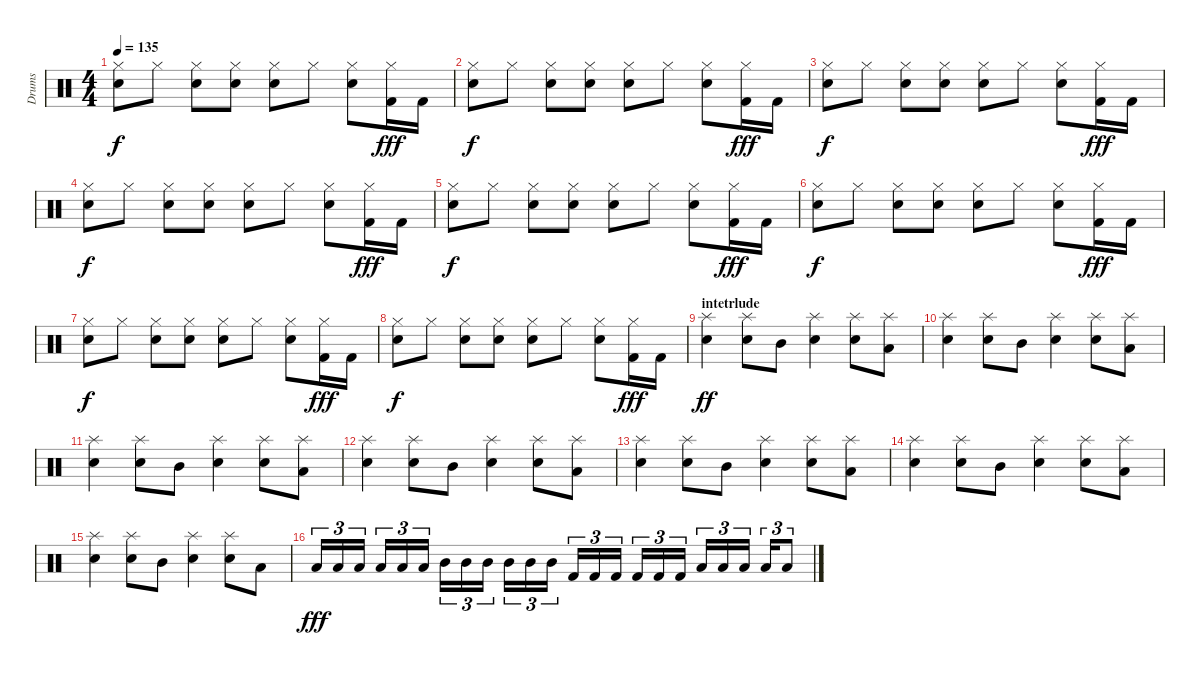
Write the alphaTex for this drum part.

\track ("Drums" "Drums") {instrument percussion}
\staff {score}
\articulation defaults
\ts (4 4)
\tempo 135
\clef neutral
\ks c
("Hi-Hat (closed)" "Electric Snare (hit)").8{dy f} "Hi-Hat (closed)".8 ("Hi-Hat (closed)" "Electric Snare (hit)").8 ("Hi-Hat (closed)" "Snare (hit) 2").8 ("Hi-Hat (closed)" "Electric Snare (hit)").8 "Hi-Hat (closed)".8 ("Hi-Hat (closed)" "Electric Snare (hit)").8 ("Hi-Hat (closed)" "Kick (hit) 2").16{dy fff} "Kick (hit) 2".16 |
("Hi-Hat (closed)" "Electric Snare (hit)").8{dy f} "Hi-Hat (closed)".8 ("Hi-Hat (closed)" "Electric Snare (hit)").8 ("Hi-Hat (closed)" "Snare (hit) 2").8 ("Hi-Hat (closed)" "Electric Snare (hit)").8 "Hi-Hat (closed)".8 ("Hi-Hat (closed)" "Electric Snare (hit)").8 ("Hi-Hat (closed)" "Kick (hit) 2").16{dy fff} "Kick (hit) 2".16 |
("Hi-Hat (closed)" "Electric Snare (hit)").8{dy f} "Hi-Hat (closed)".8 ("Hi-Hat (closed)" "Electric Snare (hit)").8 ("Hi-Hat (closed)" "Snare (hit) 2").8 ("Hi-Hat (closed)" "Electric Snare (hit)").8 "Hi-Hat (closed)".8 ("Hi-Hat (closed)" "Electric Snare (hit)").8 ("Hi-Hat (closed)" "Kick (hit) 2").16{dy fff} "Kick (hit) 2".16 |
("Hi-Hat (closed)" "Electric Snare (hit)").8{dy f} "Hi-Hat (closed)".8 ("Hi-Hat (closed)" "Electric Snare (hit)").8 ("Hi-Hat (closed)" "Snare (hit) 2").8 ("Hi-Hat (closed)" "Electric Snare (hit)").8 "Hi-Hat (closed)".8 ("Hi-Hat (closed)" "Electric Snare (hit)").8 ("Hi-Hat (closed)" "Kick (hit) 2").16{dy fff} "Kick (hit) 2".16 |
("Hi-Hat (closed)" "Electric Snare (hit)").8{dy f} "Hi-Hat (closed)".8 ("Hi-Hat (closed)" "Electric Snare (hit)").8 ("Hi-Hat (closed)" "Snare (hit) 2").8 ("Hi-Hat (closed)" "Electric Snare (hit)").8 "Hi-Hat (closed)".8 ("Hi-Hat (closed)" "Electric Snare (hit)").8 ("Hi-Hat (closed)" "Kick (hit) 2").16{dy fff} "Kick (hit) 2".16 |
("Hi-Hat (closed)" "Electric Snare (hit)").8{dy f} "Hi-Hat (closed)".8 ("Hi-Hat (closed)" "Electric Snare (hit)").8 ("Hi-Hat (closed)" "Snare (hit) 2").8 ("Hi-Hat (closed)" "Electric Snare (hit)").8 "Hi-Hat (closed)".8 ("Hi-Hat (closed)" "Electric Snare (hit)").8 ("Hi-Hat (closed)" "Kick (hit) 2").16{dy fff} "Kick (hit) 2".16 |
("Hi-Hat (closed)" "Electric Snare (hit)").8{dy f} "Hi-Hat (closed)".8 ("Hi-Hat (closed)" "Electric Snare (hit)").8 ("Hi-Hat (closed)" "Snare (hit) 2").8 ("Hi-Hat (closed)" "Electric Snare (hit)").8 "Hi-Hat (closed)".8 ("Hi-Hat (closed)" "Electric Snare (hit)").8 ("Hi-Hat (closed)" "Kick (hit) 2").16{dy fff} "Kick (hit) 2".16 |
("Hi-Hat (closed)" "Electric Snare (hit)").8{dy f} "Hi-Hat (closed)".8 ("Hi-Hat (closed)" "Electric Snare (hit)").8 ("Hi-Hat (closed)" "Snare (hit) 2").8 ("Hi-Hat (closed)" "Electric Snare (hit)").8 "Hi-Hat (closed)".8 ("Hi-Hat (closed)" "Electric Snare (hit)").8 ("Hi-Hat (closed)" "Kick (hit) 2").16{dy fff} "Kick (hit) 2".16 |
\section ("" "intetrlude")
("Splash (hit)" "Snare (hit) 2").4{dy ff} ("Splash (hit)" "Snare (hit) 2").8 "Mid Tom (hit)".8 ("Splash (hit)" "Snare (hit) 2").4 ("Snare (hit) 2" "Splash (hit)").8 ("Low Tom (hit)" "Splash (hit)").8 |
("Splash (hit)" "Snare (hit) 2").4 ("Splash (hit)" "Snare (hit) 2").8 "Mid Tom (hit)".8 ("Splash (hit)" "Snare (hit) 2").4 ("Snare (hit) 2" "Splash (hit)").8 ("Low Tom (hit)" "Splash (hit)").8 |
("Splash (hit)" "Snare (hit) 2").4 ("Splash (hit)" "Snare (hit) 2").8 "Mid Tom (hit)".8 ("Splash (hit)" "Snare (hit) 2").4 ("Snare (hit) 2" "Splash (hit)").8 ("Low Tom (hit)" "Splash (hit)").8 |
("Splash (hit)" "Snare (hit) 2").4 ("Splash (hit)" "Snare (hit) 2").8 "Mid Tom (hit)".8 ("Splash (hit)" "Snare (hit) 2").4 ("Snare (hit) 2" "Splash (hit)").8 ("Low Tom (hit)" "Splash (hit)").8 |
("Splash (hit)" "Snare (hit) 2").4 ("Splash (hit)" "Snare (hit) 2").8 "Mid Tom (hit)".8 ("Splash (hit)" "Snare (hit) 2").4 ("Snare (hit) 2" "Splash (hit)").8 ("Low Tom (hit)" "Splash (hit)").8 |
("Splash (hit)" "Snare (hit) 2").4 ("Splash (hit)" "Snare (hit) 2").8 "Mid Tom (hit)".8 ("Splash (hit)" "Snare (hit) 2").4 ("Snare (hit) 2" "Splash (hit)").8 ("Low Tom (hit)" "Splash (hit)").8 |
("Splash (hit)" "Snare (hit) 2").4 ("Splash (hit)" "Snare (hit) 2").8 "Mid Tom (hit)".8 ("Splash (hit)" "Snare (hit) 2").4 ("Snare (hit) 2" "Splash (hit)").8 "Low Tom (hit)".8 |
"Low Tom (hit)".16{tu (3 2) dy fff} "Low Tom (hit)".16{tu (3 2)} "Low Tom (hit)".16{tu (3 2)} "Low Tom (hit)".16{tu (3 2)} "Low Tom (hit)".16{tu (3 2)} "Low Tom (hit)".16{tu (3 2)} "Mid Tom (hit)".16{tu (3 2)} "Mid Tom (hit)".16{tu (3 2)} "Mid Tom (hit)".16{tu (3 2)} "Mid Tom (hit)".16{tu (3 2)} "Mid Tom (hit)".16{tu (3 2)} "Mid Tom (hit)".16{tu (3 2)} "Kick (hit) 2".16{tu (3 2)} "Kick (hit) 2".16{tu (3 2)} "Kick (hit) 2".16{tu (3 2)} "Kick (hit) 2".16{tu (3 2)} "Kick (hit) 2".16{tu (3 2)} "Kick (hit) 2".16{tu (3 2)} "Low Tom (hit)".16{tu (3 2)} "Low Tom (hit)".16{tu (3 2)} "Low Tom (hit)".16{tu (3 2)} "Low Tom (hit)".16{tu (3 2)} "Low Tom (hit)".8{tu (3 2)}
